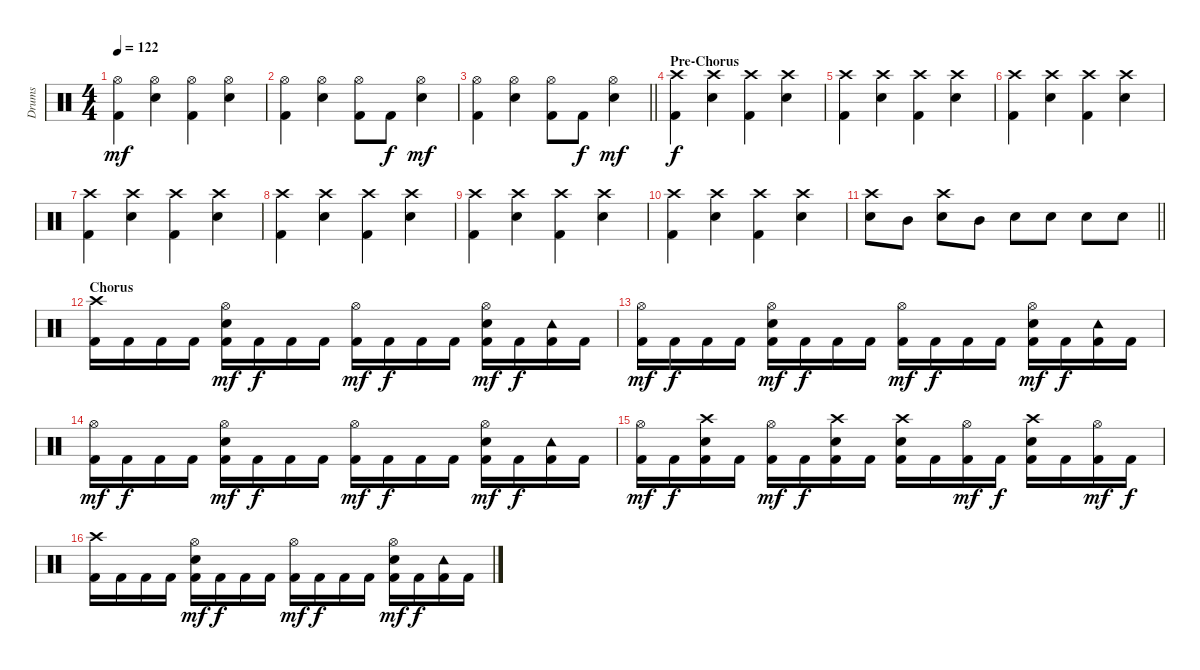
\track ("Drums" "Drums") {instrument percussion}
\staff {score}
\articulation defaults
\ts (4 4)
\tempo 122
\clef neutral
\ks c
("Hi-Hat (open)" "Kick (hit) 2").4{dy mf} ("Hi-Hat (open)" "Electric Snare (hit)").4 ("Hi-Hat (open)" "Kick (hit) 2").4 ("Hi-Hat (open)" "Electric Snare (hit)").4 |
("Hi-Hat (open)" "Kick (hit) 2").4 ("Hi-Hat (open)" "Electric Snare (hit)").4 ("Hi-Hat (open)" "Kick (hit) 2").8 "Kick (hit) 2".8{dy f} ("Hi-Hat (open)" "Electric Snare (hit)").4{dy mf} |
\barLineRight lightlight
("Hi-Hat (open)" "Kick (hit) 2").4 ("Hi-Hat (open)" "Electric Snare (hit)").4 ("Hi-Hat (open)" "Kick (hit) 2").8 "Kick (hit) 2".8{dy f} ("Hi-Hat (open)" "Electric Snare (hit)").4{dy mf} |
\section ("" "Pre-Chorus")
("Crash high (hit)" "Kick (hit) 2").4{dy f} ("Crash high (hit)" "Electric Snare (hit)").4 ("Crash high (hit)" "Kick (hit) 2").4 ("Crash high (hit)" "Electric Snare (hit)").4 |
("Crash high (hit)" "Kick (hit) 2").4 ("Crash high (hit)" "Electric Snare (hit)").4 ("Crash high (hit)" "Kick (hit) 2").4 ("Crash high (hit)" "Electric Snare (hit)").4 |
("Crash high (hit)" "Kick (hit) 2").4 ("Crash high (hit)" "Electric Snare (hit)").4 ("Crash high (hit)" "Kick (hit) 2").4 ("Crash high (hit)" "Electric Snare (hit)").4 |
("Crash high (hit)" "Kick (hit) 2").4 ("Crash high (hit)" "Electric Snare (hit)").4 ("Crash high (hit)" "Kick (hit) 2").4 ("Crash high (hit)" "Electric Snare (hit)").4 |
("Crash high (hit)" "Kick (hit) 2").4 ("Crash high (hit)" "Electric Snare (hit)").4 ("Crash high (hit)" "Kick (hit) 2").4 ("Crash high (hit)" "Electric Snare (hit)").4 |
("Crash high (hit)" "Kick (hit) 2").4 ("Crash high (hit)" "Electric Snare (hit)").4 ("Crash high (hit)" "Kick (hit) 2").4 ("Crash high (hit)" "Electric Snare (hit)").4 |
("Crash high (hit)" "Kick (hit) 2").4 ("Crash high (hit)" "Electric Snare (hit)").4 ("Crash high (hit)" "Kick (hit) 2").4 ("Crash high (hit)" "Electric Snare (hit)").4 |
\barLineRight lightlight
("Crash high (hit)" "Electric Snare (hit)").8 "Mid Tom (hit)".8 ("Crash high (hit)" "Electric Snare (hit)").8 "Mid Tom (hit)".8 "Electric Snare (hit)".8 "Electric Snare (hit)".8 "Electric Snare (hit)".8 "Electric Snare (hit)".8 |
\section ("" "Chorus")
("Crash high (hit)" "Kick (hit) 2").16 "Kick (hit) 2".16 "Kick (hit) 2".16 "Kick (hit) 2".16 ("Hi-Hat (open)" "Electric Snare (hit)" "Kick (hit) 2").16{dy mf} "Kick (hit) 2".16{dy f} "Kick (hit) 2".16 "Kick (hit) 2".16 ("Hi-Hat (open)" "Kick (hit) 2").16{dy mf} "Kick (hit) 2".16{dy f} "Kick (hit) 2".16 "Kick (hit) 2".16 ("Hi-Hat (open)" "Electric Snare (hit)" "Kick (hit) 2").16{dy mf} "Kick (hit) 2".16{dy f} ("Tambourine (hit)" "Kick (hit) 2").16 "Kick (hit) 2".16 |
("Hi-Hat (open)" "Kick (hit) 2").16{dy mf} "Kick (hit) 2".16{dy f} "Kick (hit) 2".16 "Kick (hit) 2".16 ("Hi-Hat (open)" "Electric Snare (hit)" "Kick (hit) 2").16{dy mf} "Kick (hit) 2".16{dy f} "Kick (hit) 2".16 "Kick (hit) 2".16 ("Hi-Hat (open)" "Kick (hit) 2").16{dy mf} "Kick (hit) 2".16{dy f} "Kick (hit) 2".16 "Kick (hit) 2".16 ("Hi-Hat (open)" "Electric Snare (hit)" "Kick (hit) 2").16{dy mf} "Kick (hit) 2".16{dy f} ("Tambourine (hit)" "Kick (hit) 2").16 "Kick (hit) 2".16 |
("Hi-Hat (open)" "Kick (hit) 2").16{dy mf} "Kick (hit) 2".16{dy f} "Kick (hit) 2".16 "Kick (hit) 2".16 ("Hi-Hat (open)" "Electric Snare (hit)" "Kick (hit) 2").16{dy mf} "Kick (hit) 2".16{dy f} "Kick (hit) 2".16 "Kick (hit) 2".16 ("Hi-Hat (open)" "Kick (hit) 2").16{dy mf} "Kick (hit) 2".16{dy f} "Kick (hit) 2".16 "Kick (hit) 2".16 ("Hi-Hat (open)" "Electric Snare (hit)" "Kick (hit) 2").16{dy mf} "Kick (hit) 2".16{dy f} ("Tambourine (hit)" "Kick (hit) 2").16 "Kick (hit) 2".16 |
("Hi-Hat (open)" "Kick (hit) 2").16{dy mf} "Kick (hit) 2".16{dy f} ("Crash high (hit)" "Electric Snare (hit)" "Kick (hit) 2").16 "Kick (hit) 2".16 ("Hi-Hat (open)" "Kick (hit) 2").16{dy mf} "Kick (hit) 2".16{dy f} ("Crash high (hit)" "Electric Snare (hit)" "Kick (hit) 2").16 "Kick (hit) 2".16 ("Crash high (hit)" "Electric Snare (hit)" "Kick (hit) 2").16 "Kick (hit) 2".16 ("Hi-Hat (open)" "Kick (hit) 2").16{dy mf} "Kick (hit) 2".16{dy f} ("Crash high (hit)" "Electric Snare (hit)" "Kick (hit) 2").16 "Kick (hit) 2".16 ("Hi-Hat (open)" "Kick (hit) 2").16{dy mf} "Kick (hit) 2".16{dy f} |
("Crash high (hit)" "Kick (hit) 2").16 "Kick (hit) 2".16 "Kick (hit) 2".16 "Kick (hit) 2".16 ("Hi-Hat (open)" "Electric Snare (hit)" "Kick (hit) 2").16{dy mf} "Kick (hit) 2".16{dy f} "Kick (hit) 2".16 "Kick (hit) 2".16 ("Hi-Hat (open)" "Kick (hit) 2").16{dy mf} "Kick (hit) 2".16{dy f} "Kick (hit) 2".16 "Kick (hit) 2".16 ("Hi-Hat (open)" "Electric Snare (hit)" "Kick (hit) 2").16{dy mf} "Kick (hit) 2".16{dy f} ("Tambourine (hit)" "Kick (hit) 2").16 "Kick (hit) 2".16
